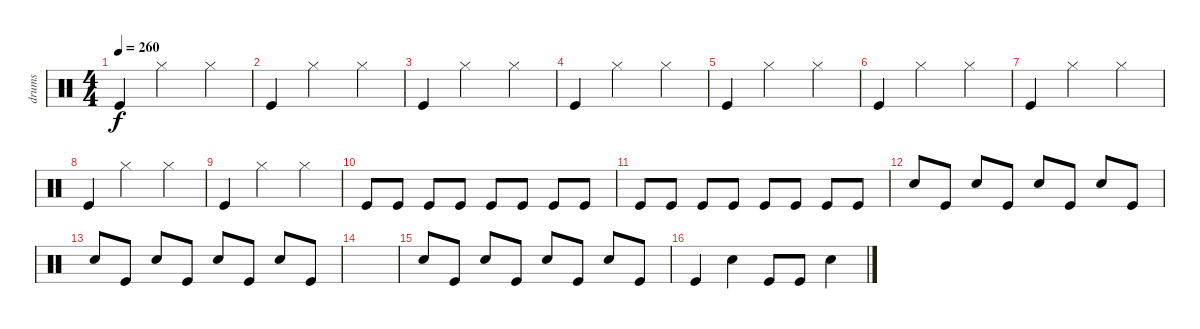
\track ("drums" "drums") {instrument percussion}
\staff {score}
\articulation defaults
\ts (4 4)
\tempo 260
\clef neutral
\ks c "Kick (hit)".4{dy f} "Hi-Hat (closed)".2 "Hi-Hat (closed)".4
|
"Kick (hit)".4 "Hi-Hat (closed)".2 "Hi-Hat (closed)".4 |
"Kick (hit)".4 "Hi-Hat (closed)".2 "Hi-Hat (closed)".4 |
"Kick (hit)".4 "Hi-Hat (closed)".2 "Hi-Hat (closed)".4 |
"Kick (hit)".4 "Hi-Hat (closed)".2 "Hi-Hat (closed)".4 |
"Kick (hit)".4 "Hi-Hat (closed)".2 "Hi-Hat (closed)".4 |
"Kick (hit)".4 "Hi-Hat (closed)".2 "Hi-Hat (closed)".4 |
"Kick (hit)".4 "Hi-Hat (closed)".2 "Hi-Hat (closed)".4 |
"Kick (hit)".4 "Hi-Hat (closed)".2 "Hi-Hat (closed)".4 |
"Kick (hit)".8 "Kick (hit)".8 "Kick (hit)".8 "Kick (hit)".8 "Kick (hit)".8 "Kick (hit)".8 "Kick (hit)".8 "Kick (hit)".8 |
"Kick (hit)".8 "Kick (hit)".8 "Kick (hit)".8 "Kick (hit)".8 "Kick (hit)".8 "Kick (hit)".8 "Kick (hit)".8 "Kick (hit)".8 |
"Electric Snare (hit)".8 "Kick (hit)".8 "Electric Snare (hit)".8 "Kick (hit)".8 "Electric Snare (hit)".8 "Kick (hit)".8 "Electric Snare (hit)".8 "Kick (hit)".8 |
"Electric Snare (hit)".8 "Kick (hit)".8 "Electric Snare (hit)".8 "Kick (hit)".8 "Electric Snare (hit)".8 "Kick (hit)".8 "Electric Snare (hit)".8 "Kick (hit)".8 |
|
"Electric Snare (hit)".8 "Kick (hit)".8 "Electric Snare (hit)".8 "Kick (hit)".8 "Electric Snare (hit)".8 "Kick (hit)".8 "Electric Snare (hit)".8 "Kick (hit)".8 |
"Kick (hit)".4 "Snare (hit) 2".4 "Kick (hit)".8 "Kick (hit)".8 "Snare (hit) 2".4
